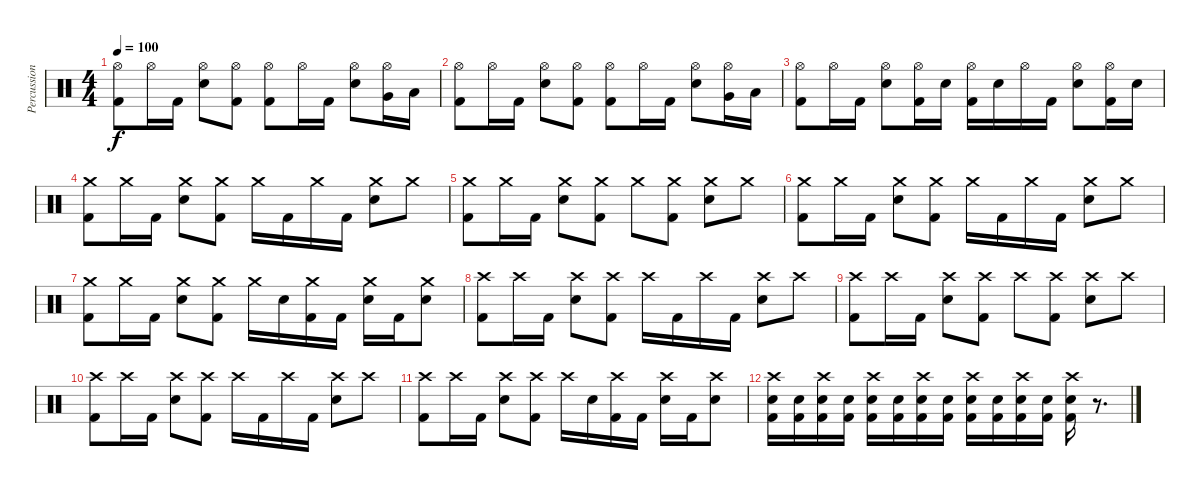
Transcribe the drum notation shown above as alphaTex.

\track ("Percussions" "Percussion") {instrument percussion}
\staff {score}
\articulation defaults
\ts (4 4)
\tempo 100
\clef neutral
\ks c
("Hi-Hat (open)" "Kick (hit) 2").8{dy f} "Hi-Hat (open)".16 "Kick (hit) 2".16 ("Electric Snare (hit)" "Hi-Hat (open)").8 ("Hi-Hat (open)" "Kick (hit) 2").8 ("Hi-Hat (open)" "Kick (hit) 2").8 "Hi-Hat (open)".16 "Kick (hit) 2".16 ("Electric Snare (hit)" "Hi-Hat (open)").8 ("Very Low Tom (hit)" "Hi-Hat (open)").16 "Low Floor Tom (hit)".16 |
("Hi-Hat (open)" "Kick (hit) 2").8 "Hi-Hat (open)".16 "Kick (hit) 2".16 ("Electric Snare (hit)" "Hi-Hat (open)").8 ("Hi-Hat (open)" "Kick (hit) 2").8 ("Hi-Hat (open)" "Kick (hit) 2").8 "Hi-Hat (open)".16 "Kick (hit) 2".16 ("Electric Snare (hit)" "Hi-Hat (open)").8 ("Very Low Tom (hit)" "Hi-Hat (open)").16 "Low Floor Tom (hit)".16 |
("Hi-Hat (open)" "Kick (hit) 2").8 "Hi-Hat (open)".16 "Kick (hit) 2".16 ("Electric Snare (hit)" "Hi-Hat (open)").8 ("Hi-Hat (open)" "Kick (hit) 2").16 "Electric Snare (hit)".16 ("Hi-Hat (open)" "Kick (hit) 2").16 "Electric Snare (hit)".16 "Hi-Hat (open)".16 "Kick (hit) 2".16 ("Electric Snare (hit)" "Hi-Hat (open)").8 ("Hi-Hat (open)" "Kick (hit) 2").16 "Electric Snare (hit)".16 |
("Crash medium (hit)" "Kick (hit) 2").8 "Crash medium (hit)".16 "Kick (hit) 2".16 ("Electric Snare (hit)" "Crash medium (hit)").8 ("Crash medium (hit)" "Kick (hit) 2").8 "Crash medium (hit)".16 "Kick (hit) 2".16 "Crash medium (hit)".16 "Kick (hit) 2".16 ("Electric Snare (hit)" "Crash medium (hit)").8 "Crash medium (hit)".8 |
("Crash medium (hit)" "Kick (hit) 2").8 "Crash medium (hit)".16 "Kick (hit) 2".16 ("Electric Snare (hit)" "Crash medium (hit)").8 ("Crash medium (hit)" "Kick (hit) 2").8 "Crash medium (hit)".8 ("Crash medium (hit)" "Kick (hit) 2").8 ("Electric Snare (hit)" "Crash medium (hit)").8 "Crash medium (hit)".8 |
("Crash medium (hit)" "Kick (hit) 2").8 "Crash medium (hit)".16 "Kick (hit) 2".16 ("Electric Snare (hit)" "Crash medium (hit)").8 ("Crash medium (hit)" "Kick (hit) 2").8 "Crash medium (hit)".16 "Kick (hit) 2".16 "Crash medium (hit)".16 "Kick (hit) 2".16 ("Electric Snare (hit)" "Crash medium (hit)").8 "Crash medium (hit)".8 |
("Crash medium (hit)" "Kick (hit) 2").8 "Crash medium (hit)".16 "Kick (hit) 2".16 ("Electric Snare (hit)" "Crash medium (hit)").8 ("Crash medium (hit)" "Kick (hit) 2").8 "Crash medium (hit)".16 "Electric Snare (hit)".16 ("Crash medium (hit)" "Kick (hit) 2").16 "Kick (hit) 2".16 ("Electric Snare (hit)" "Crash medium (hit)").16 "Kick (hit) 2".16 ("Electric Snare (hit)" "Crash medium (hit)").8 |
("Crash high (hit)" "Kick (hit) 2").8 "Crash high (hit)".16 "Kick (hit) 2".16 ("Electric Snare (hit)" "Crash high (hit)").8 ("Crash high (hit)" "Kick (hit) 2").8 "Crash high (hit)".16 "Kick (hit) 2".16 "Crash high (hit)".16 "Kick (hit) 2".16 ("Electric Snare (hit)" "Crash high (hit)").8 "Crash high (hit)".8 |
("Crash high (hit)" "Kick (hit) 2").8 "Crash high (hit)".16 "Kick (hit) 2".16 ("Electric Snare (hit)" "Crash high (hit)").8 ("Crash high (hit)" "Kick (hit) 2").8 "Crash high (hit)".8 ("Crash high (hit)" "Kick (hit) 2").8 ("Electric Snare (hit)" "Crash high (hit)").8 "Crash high (hit)".8 |
("Crash high (hit)" "Kick (hit) 2").8 "Crash high (hit)".16 "Kick (hit) 2".16 ("Electric Snare (hit)" "Crash high (hit)").8 ("Crash high (hit)" "Kick (hit) 2").8 "Crash high (hit)".16 "Kick (hit) 2".16 "Crash high (hit)".16 "Kick (hit) 2".16 ("Electric Snare (hit)" "Crash high (hit)").8 "Crash high (hit)".8 |
("Crash high (hit)" "Kick (hit) 2").8 "Crash high (hit)".16 "Kick (hit) 2".16 ("Electric Snare (hit)" "Crash high (hit)").8 ("Crash high (hit)" "Kick (hit) 2").8 "Crash high (hit)".16 "Electric Snare (hit)".16 ("Crash high (hit)" "Kick (hit) 2").16 "Kick (hit) 2".16 ("Electric Snare (hit)" "Crash high (hit)").16 "Kick (hit) 2".16 ("Electric Snare (hit)" "Crash high (hit)").8 |
("Electric Snare (hit)" "Crash high (hit)" "Kick (hit) 2").16 ("Electric Snare (hit)" "Kick (hit) 2").16 ("Electric Snare (hit)" "Crash high (hit)" "Kick (hit) 2").16 ("Electric Snare (hit)" "Kick (hit) 2").16 ("Electric Snare (hit)" "Crash high (hit)" "Kick (hit) 2").16 ("Electric Snare (hit)" "Kick (hit) 2").16 ("Electric Snare (hit)" "Crash high (hit)" "Kick (hit) 2").16 ("Electric Snare (hit)" "Kick (hit) 2").16 ("Electric Snare (hit)" "Crash high (hit)" "Kick (hit) 2").16 ("Electric Snare (hit)" "Kick (hit) 2").16 ("Electric Snare (hit)" "Crash high (hit)" "Kick (hit) 2").16 ("Electric Snare (hit)" "Kick (hit) 2").16 ("Electric Snare (hit)" "Crash high (hit)" "Kick (hit) 2").16 r.8{d}
